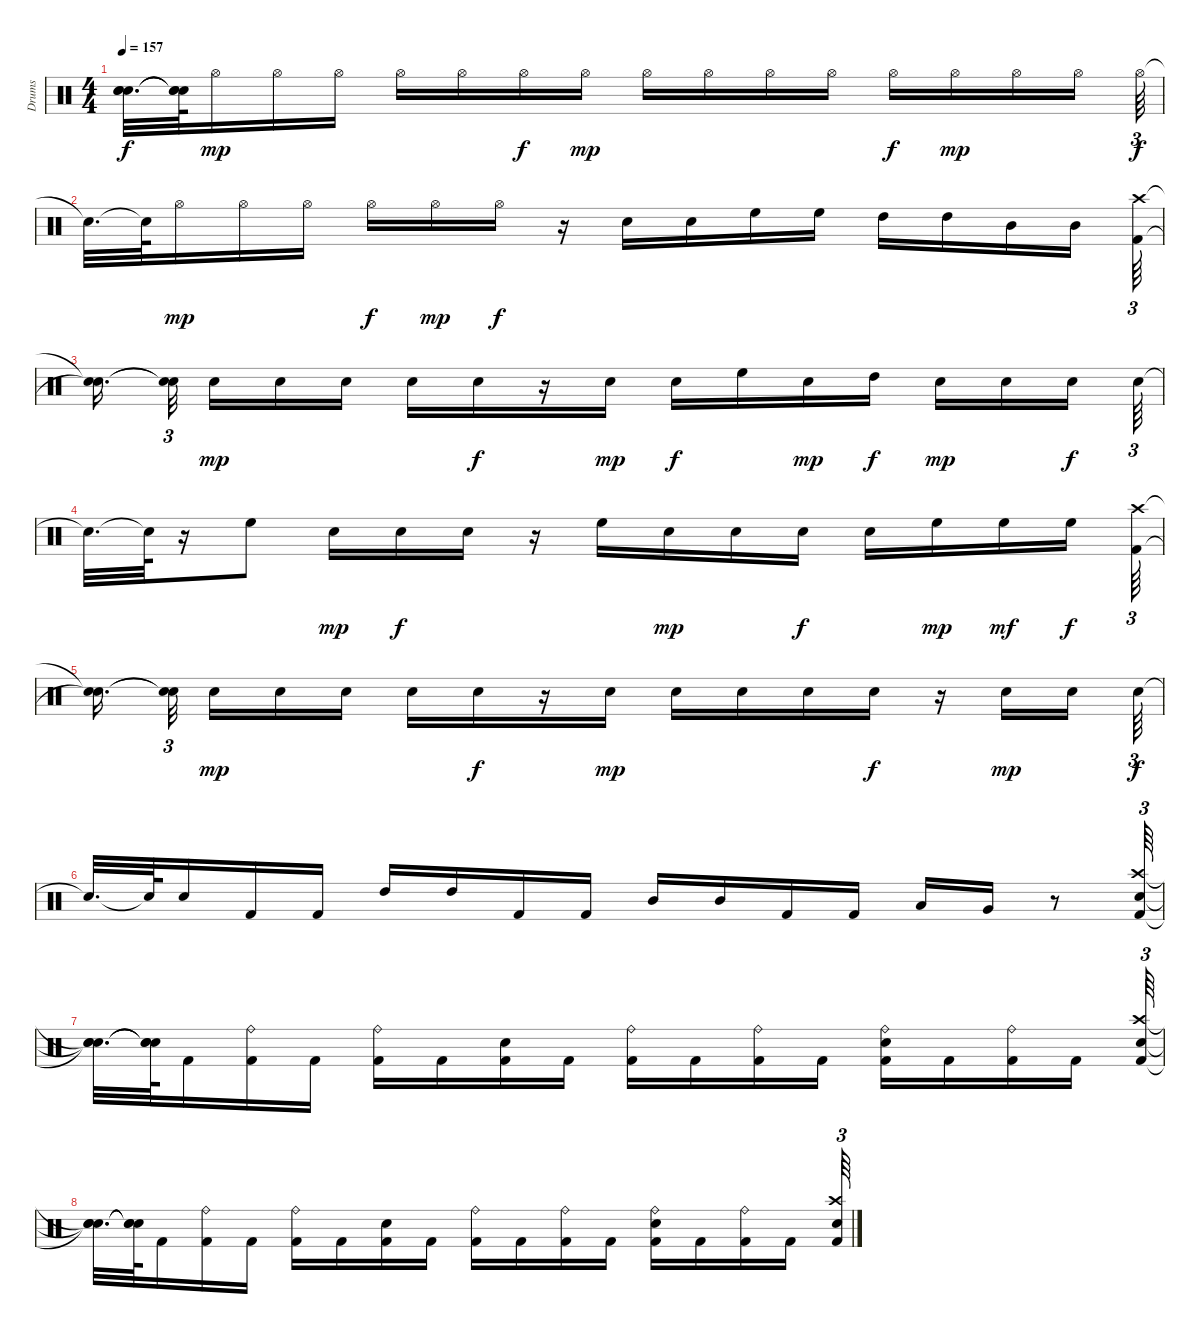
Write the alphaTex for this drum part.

\track ("Drums" "Drums") {instrument percussion}
\staff {score}
\articulation defaults
\ts (4 4)
\tempo 157
\clef neutral
\ks c
("Snare (hit)"{t} "Snare (hit)"{t} "Snare (hit)"{t}).32{d dy f} ("Snare (hit)"{t} "Snare (hit)"{t} "Snare (hit)"{t}).64 "Hi-Hat (open)".16{dy mp} "Hi-Hat (open)".16 "Hi-Hat (open)".16 "Hi-Hat (open)".16 "Hi-Hat (open)".16 "Hi-Hat (open)".16{dy f} "Hi-Hat (open)".16{dy mp} "Hi-Hat (open)".16 "Hi-Hat (open)".16 "Hi-Hat (open)".16 "Hi-Hat (open)".16 "Hi-Hat (open)".16{dy f} "Hi-Hat (open)".16{dy mp} "Hi-Hat (open)".16 "Hi-Hat (open)".16 "Hi-Hat (open)".64{tu (3 2) dy f} |
"Snare (hit)"{t}.32{d} "Snare (hit)"{t}.64 "Hi-Hat (open)".16{dy mp} "Hi-Hat (open)".16 "Hi-Hat (open)".16 "Hi-Hat (open)".16{dy f} "Hi-Hat (open)".16{dy mp} "Hi-Hat (open)".16{dy f} r.16 "Electric Snare (hit)".16 "Electric Snare (hit)".16 "High Floor Tom (hit)".16 "High Floor Tom (hit)".16 "High Tom (hit)".16 "High Tom (hit)".16 "Mid Tom (hit)".16 "Mid Tom (hit)".16 ("Crash high (hit)" "Kick (hit) 2").64{tu (3 2)} |
("Snare (hit)"{t} "Snare (hit)"{t}).16{d} ("Snare (hit)"{t} "Snare (hit)"{t}).32{tu (3 2)} "Electric Snare (hit)".16{dy mp} "Electric Snare (hit)".16 "Electric Snare (hit)".16 "Electric Snare (hit)".16 "Electric Snare (hit)".16{dy f} r.16 "Electric Snare (hit)".16{dy mp} "Electric Snare (hit)".16{dy f} "High Floor Tom (hit)".16 "Electric Snare (hit)".16{dy mp} "High Tom (hit)".16{dy f} "Electric Snare (hit)".16{dy mp} "Electric Snare (hit)".16 "Electric Snare (hit)".16{dy f} "Electric Snare (hit)".64{tu (3 2)} |
"Snare (hit)"{t}.32{d} "Snare (hit)"{t}.64 r.16 "High Floor Tom (hit)".8 "Electric Snare (hit)".16{dy mp} "Electric Snare (hit)".16{dy f} "Electric Snare (hit)".16 r.16 "High Floor Tom (hit)".16 "Electric Snare (hit)".16{dy mp} "Electric Snare (hit)".16 "Electric Snare (hit)".16{dy f} "Electric Snare (hit)".16 "High Floor Tom (hit)".16{dy mp} "High Floor Tom (hit)".16{dy mf} "High Floor Tom (hit)".16{dy f} ("Kick (hit) 2" "Crash high (hit)").64{tu (3 2)} |
("Snare (hit)"{t} "Snare (hit)"{t}).16{d} ("Snare (hit)"{t} "Snare (hit)"{t}).32{tu (3 2)} "Electric Snare (hit)".16{dy mp} "Electric Snare (hit)".16 "Electric Snare (hit)".16 "Electric Snare (hit)".16 "Electric Snare (hit)".16{dy f} r.16 "Electric Snare (hit)".16{dy mp} "Electric Snare (hit)".16 "Electric Snare (hit)".16 "Electric Snare (hit)".16 "Electric Snare (hit)".16{dy f} r.16 "Electric Snare (hit)".16{dy mp} "Electric Snare (hit)".16 "Electric Snare (hit)".64{tu (3 2) dy f} |
"Snare (hit)"{t}.32{d} "Snare (hit)"{t}.64 "Electric Snare (hit)".16 "Kick (hit) 2".16 "Kick (hit) 2".16 "High Tom (hit)".16 "High Tom (hit)".16 "Kick (hit) 2".16 "Kick (hit) 2".16 "Mid Tom (hit)".16 "Mid Tom (hit)".16 "Kick (hit) 2".16 "Kick (hit) 2".16 "Low Tom (hit)".16 "Very Low Tom (hit)".16 r.8 ("Crash high (hit)" "Electric Snare (hit)" "Kick (hit) 2").64{tu (3 2)} |
("Snare (hit)"{t} "Snare (hit)"{t} "Snare (hit)"{t}).32{d} ("Snare (hit)"{t} "Snare (hit)"{t} "Snare (hit)"{t}).64 "Kick (hit) 2".16 ("Kick (hit) 2" "Ride (bell)").16 "Kick (hit) 2".16 ("Kick (hit) 2" "Ride (bell)").16 "Kick (hit) 2".16 ("Kick (hit) 2" "Electric Snare (hit)").16 "Kick (hit) 2".16 ("Kick (hit) 2" "Ride (bell)").16 "Kick (hit) 2".16 ("Kick (hit) 2" "Ride (bell)").16 "Kick (hit) 2".16 ("Kick (hit) 2" "Electric Snare (hit)" "Ride (bell)").16 "Kick (hit) 2".16 ("Kick (hit) 2" "Ride (bell)").16 "Kick (hit) 2".16 ("Kick (hit) 2" "Electric Snare (hit)" "Crash high (hit)").64{tu (3 2)} |
("Snare (hit)"{t} "Snare (hit)"{t} "Snare (hit)"{t}).32{d} ("Snare (hit)"{t} "Snare (hit)"{t} "Snare (hit)"{t}).64 "Kick (hit) 2".16 ("Kick (hit) 2" "Ride (bell)").16 "Kick (hit) 2".16 ("Kick (hit) 2" "Ride (bell)").16 "Kick (hit) 2".16 ("Kick (hit) 2" "Electric Snare (hit)").16 "Kick (hit) 2".16 ("Kick (hit) 2" "Ride (bell)").16 "Kick (hit) 2".16 ("Kick (hit) 2" "Ride (bell)").16 "Kick (hit) 2".16 ("Kick (hit) 2" "Electric Snare (hit)" "Ride (bell)").16 "Kick (hit) 2".16 ("Kick (hit) 2" "Ride (bell)").16 "Kick (hit) 2".16 ("Kick (hit) 2" "Electric Snare (hit)" "Crash high (hit)").64{tu (3 2)}
